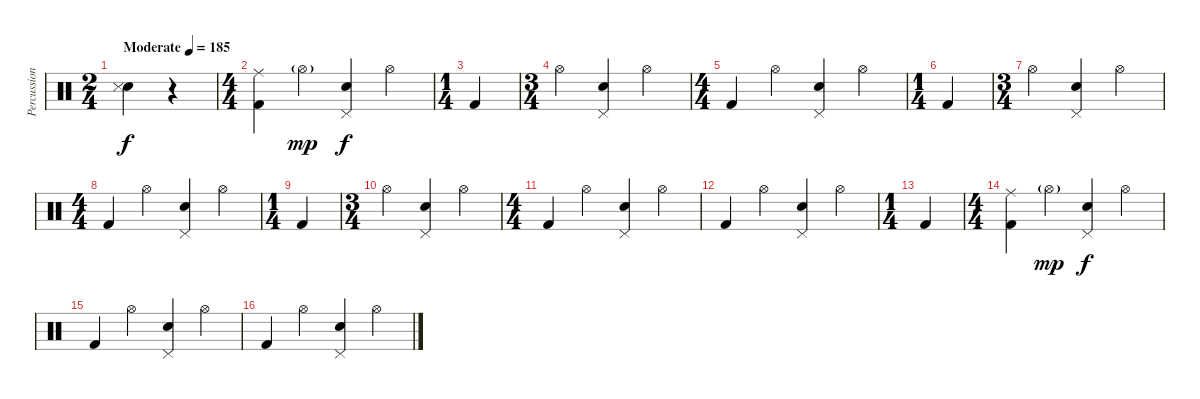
\track ("Percussion" "Percussion") {instrument percussion}
\staff {score}
\articulation defaults
\ts (2 4)
\tempo (185 "Moderate")
\clef neutral
\ks c
("Electric Snare (hit)" "Snare (side stick) 3").4{dy f} r.4 |
\ts (4 4)
("Ride (middle)" "Kick (hit) 2").4 "Hi-Hat (open)"{g}.4{dy mp} ("Pedal Hi-Hat (hit)" "Electric Snare (hit)").4{dy f} "Hi-Hat (open)".4 |
\ts (1 4)
"Kick (hit) 2".4 |
\ts (3 4)
"Hi-Hat (open)".4 ("Pedal Hi-Hat (hit)" "Electric Snare (hit)").4 "Hi-Hat (open)".4 |
\ts (4 4)
"Kick (hit) 2".4 "Hi-Hat (open)".4 ("Pedal Hi-Hat (hit)" "Electric Snare (hit)").4 "Hi-Hat (open)".4 |
\ts (1 4)
"Kick (hit) 2".4 |
\ts (3 4)
"Hi-Hat (open)".4 ("Pedal Hi-Hat (hit)" "Electric Snare (hit)").4 "Hi-Hat (open)".4 |
\ts (4 4)
"Kick (hit) 2".4 "Hi-Hat (open)".4 ("Pedal Hi-Hat (hit)" "Electric Snare (hit)").4 "Hi-Hat (open)".4 |
\ts (1 4)
"Kick (hit) 2".4 |
\ts (3 4)
"Hi-Hat (open)".4 ("Pedal Hi-Hat (hit)" "Electric Snare (hit)").4 "Hi-Hat (open)".4 |
\ts (4 4)
"Kick (hit) 2".4 "Hi-Hat (open)".4 ("Pedal Hi-Hat (hit)" "Electric Snare (hit)").4 "Hi-Hat (open)".4 |
"Kick (hit) 2".4 "Hi-Hat (open)".4 ("Pedal Hi-Hat (hit)" "Electric Snare (hit)").4 "Hi-Hat (open)".4 |
\ts (1 4)
"Kick (hit) 2".4 |
\ts (4 4)
("Ride (middle)" "Kick (hit) 2").4 "Hi-Hat (open)"{g}.4{dy mp} ("Pedal Hi-Hat (hit)" "Electric Snare (hit)").4{dy f} "Hi-Hat (open)".4 |
"Kick (hit) 2".4 "Hi-Hat (open)".4 ("Pedal Hi-Hat (hit)" "Electric Snare (hit)").4 "Hi-Hat (open)".4 |
"Kick (hit) 2".4 "Hi-Hat (open)".4 ("Pedal Hi-Hat (hit)" "Electric Snare (hit)").4 "Hi-Hat (open)".4
